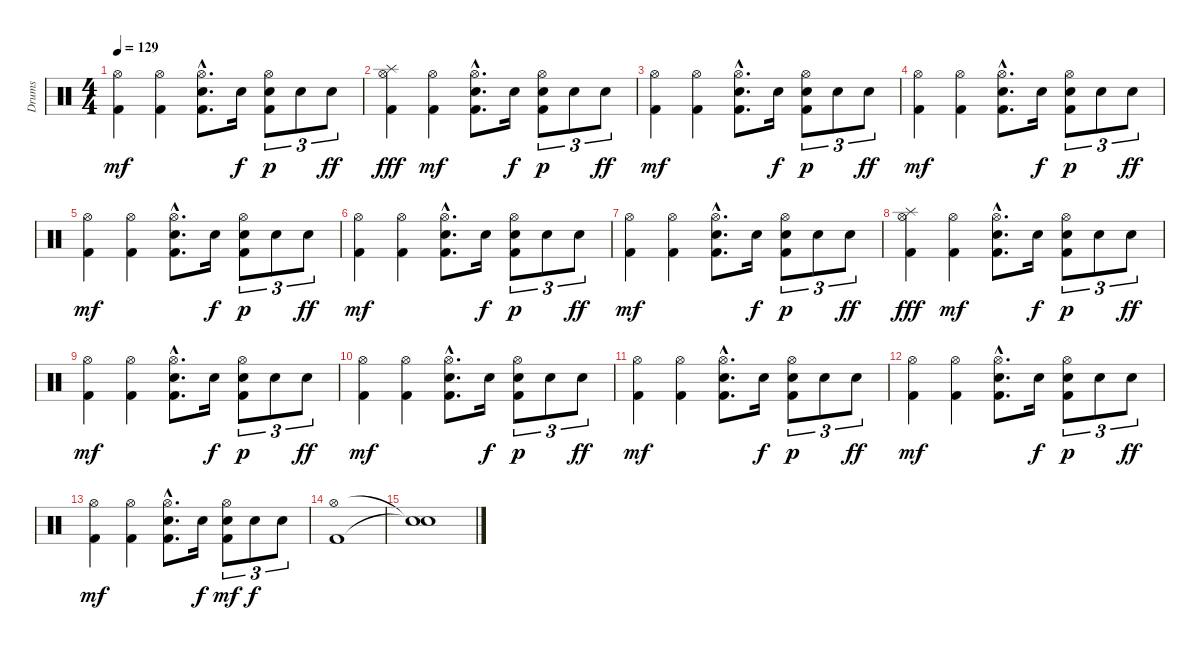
\track ("Drums" "Drums") {instrument percussion}
\staff {score}
\articulation defaults
\ts (4 4)
\tempo 129
\clef neutral
\ks c
("Hi-Hat (open)" "Kick (hit) 2").4{dy mf} ("Hi-Hat (open)" "Kick (hit) 2").4 ("Hi-Hat (open)"{hac} "Electric Snare (hit)"{hac} "Kick (hit) 2"{hac}).8{d} "Electric Snare (hit)".16{dy f} ("Hi-Hat (open)" "Electric Snare (hit)" "Kick (hit) 2").8{tu (3 2) dy p} "Electric Snare (hit)".8{tu (3 2)} "Electric Snare (hit)".8{tu (3 2) dy ff} |
("Hi-Hat (open)" "Splash (hit)" "Kick (hit) 2").4{dy fff} ("Hi-Hat (open)" "Kick (hit) 2").4{dy mf} ("Hi-Hat (open)"{hac} "Electric Snare (hit)"{hac} "Kick (hit) 2"{hac}).8{d} "Electric Snare (hit)".16{dy f} ("Hi-Hat (open)" "Electric Snare (hit)" "Kick (hit) 2").8{tu (3 2) dy p} "Electric Snare (hit)".8{tu (3 2)} "Electric Snare (hit)".8{tu (3 2) dy ff} |
("Hi-Hat (open)" "Kick (hit) 2").4{dy mf} ("Hi-Hat (open)" "Kick (hit) 2").4 ("Hi-Hat (open)"{hac} "Electric Snare (hit)"{hac} "Kick (hit) 2"{hac}).8{d} "Electric Snare (hit)".16{dy f} ("Hi-Hat (open)" "Electric Snare (hit)" "Kick (hit) 2").8{tu (3 2) dy p} "Electric Snare (hit)".8{tu (3 2)} "Electric Snare (hit)".8{tu (3 2) dy ff} |
("Hi-Hat (open)" "Kick (hit) 2").4{dy mf} ("Hi-Hat (open)" "Kick (hit) 2").4 ("Hi-Hat (open)"{hac} "Electric Snare (hit)"{hac} "Kick (hit) 2"{hac}).8{d} "Electric Snare (hit)".16{dy f} ("Hi-Hat (open)" "Electric Snare (hit)" "Kick (hit) 2").8{tu (3 2) dy p} "Electric Snare (hit)".8{tu (3 2)} "Electric Snare (hit)".8{tu (3 2) dy ff} |
("Hi-Hat (open)" "Kick (hit) 2").4{dy mf} ("Hi-Hat (open)" "Kick (hit) 2").4 ("Hi-Hat (open)"{hac} "Electric Snare (hit)"{hac} "Kick (hit) 2"{hac}).8{d} "Electric Snare (hit)".16{dy f} ("Hi-Hat (open)" "Electric Snare (hit)" "Kick (hit) 2").8{tu (3 2) dy p} "Electric Snare (hit)".8{tu (3 2)} "Electric Snare (hit)".8{tu (3 2) dy ff} |
("Hi-Hat (open)" "Kick (hit) 2").4{dy mf} ("Hi-Hat (open)" "Kick (hit) 2").4 ("Hi-Hat (open)"{hac} "Electric Snare (hit)"{hac} "Kick (hit) 2"{hac}).8{d} "Electric Snare (hit)".16{dy f} ("Hi-Hat (open)" "Electric Snare (hit)" "Kick (hit) 2").8{tu (3 2) dy p} "Electric Snare (hit)".8{tu (3 2)} "Electric Snare (hit)".8{tu (3 2) dy ff} |
("Hi-Hat (open)" "Kick (hit) 2").4{dy mf} ("Hi-Hat (open)" "Kick (hit) 2").4 ("Hi-Hat (open)"{hac} "Electric Snare (hit)"{hac} "Kick (hit) 2"{hac}).8{d} "Electric Snare (hit)".16{dy f} ("Hi-Hat (open)" "Electric Snare (hit)" "Kick (hit) 2").8{tu (3 2) dy p} "Electric Snare (hit)".8{tu (3 2)} "Electric Snare (hit)".8{tu (3 2) dy ff} |
("Hi-Hat (open)" "Splash (hit)" "Kick (hit) 2").4{dy fff} ("Hi-Hat (open)" "Kick (hit) 2").4{dy mf} ("Hi-Hat (open)"{hac} "Electric Snare (hit)"{hac} "Kick (hit) 2"{hac}).8{d} "Electric Snare (hit)".16{dy f} ("Hi-Hat (open)" "Electric Snare (hit)" "Kick (hit) 2").8{tu (3 2) dy p} "Electric Snare (hit)".8{tu (3 2)} "Electric Snare (hit)".8{tu (3 2) dy ff} |
("Hi-Hat (open)" "Kick (hit) 2").4{dy mf} ("Hi-Hat (open)" "Kick (hit) 2").4 ("Hi-Hat (open)"{hac} "Electric Snare (hit)"{hac} "Kick (hit) 2"{hac}).8{d} "Electric Snare (hit)".16{dy f} ("Hi-Hat (open)" "Electric Snare (hit)" "Kick (hit) 2").8{tu (3 2) dy p} "Electric Snare (hit)".8{tu (3 2)} "Electric Snare (hit)".8{tu (3 2) dy ff} |
("Hi-Hat (open)" "Kick (hit) 2").4{dy mf} ("Hi-Hat (open)" "Kick (hit) 2").4 ("Hi-Hat (open)"{hac} "Electric Snare (hit)"{hac} "Kick (hit) 2"{hac}).8{d} "Electric Snare (hit)".16{dy f} ("Hi-Hat (open)" "Electric Snare (hit)" "Kick (hit) 2").8{tu (3 2) dy p} "Electric Snare (hit)".8{tu (3 2)} "Electric Snare (hit)".8{tu (3 2) dy ff} |
("Hi-Hat (open)" "Kick (hit) 2").4{dy mf} ("Hi-Hat (open)" "Kick (hit) 2").4 ("Hi-Hat (open)"{hac} "Electric Snare (hit)"{hac} "Kick (hit) 2"{hac}).8{d} "Electric Snare (hit)".16{dy f} ("Hi-Hat (open)" "Electric Snare (hit)" "Kick (hit) 2").8{tu (3 2) dy p} "Electric Snare (hit)".8{tu (3 2)} "Electric Snare (hit)".8{tu (3 2) dy ff} |
("Hi-Hat (open)" "Kick (hit) 2").4{dy mf} ("Hi-Hat (open)" "Kick (hit) 2").4 ("Hi-Hat (open)"{hac} "Electric Snare (hit)"{hac} "Kick (hit) 2"{hac}).8{d} "Electric Snare (hit)".16{dy f} ("Hi-Hat (open)" "Electric Snare (hit)" "Kick (hit) 2").8{tu (3 2) dy p} "Electric Snare (hit)".8{tu (3 2)} "Electric Snare (hit)".8{tu (3 2) dy ff} |
("Hi-Hat (open)" "Kick (hit) 2").4{dy mf} ("Hi-Hat (open)" "Kick (hit) 2").4 ("Hi-Hat (open)"{hac} "Electric Snare (hit)"{hac} "Kick (hit) 2"{hac}).8{d} "Electric Snare (hit)".16{dy f} ("Hi-Hat (open)" "Electric Snare (hit)" "Kick (hit) 2").8{tu (3 2) dy mf} "Electric Snare (hit)".8{tu (3 2) dy f} "Electric Snare (hit)".8{tu (3 2)} |
("Hi-Hat (open)" "Kick (hit) 2").1 |
("Snare (hit)"{t} "Snare (hit)"{t}).1
